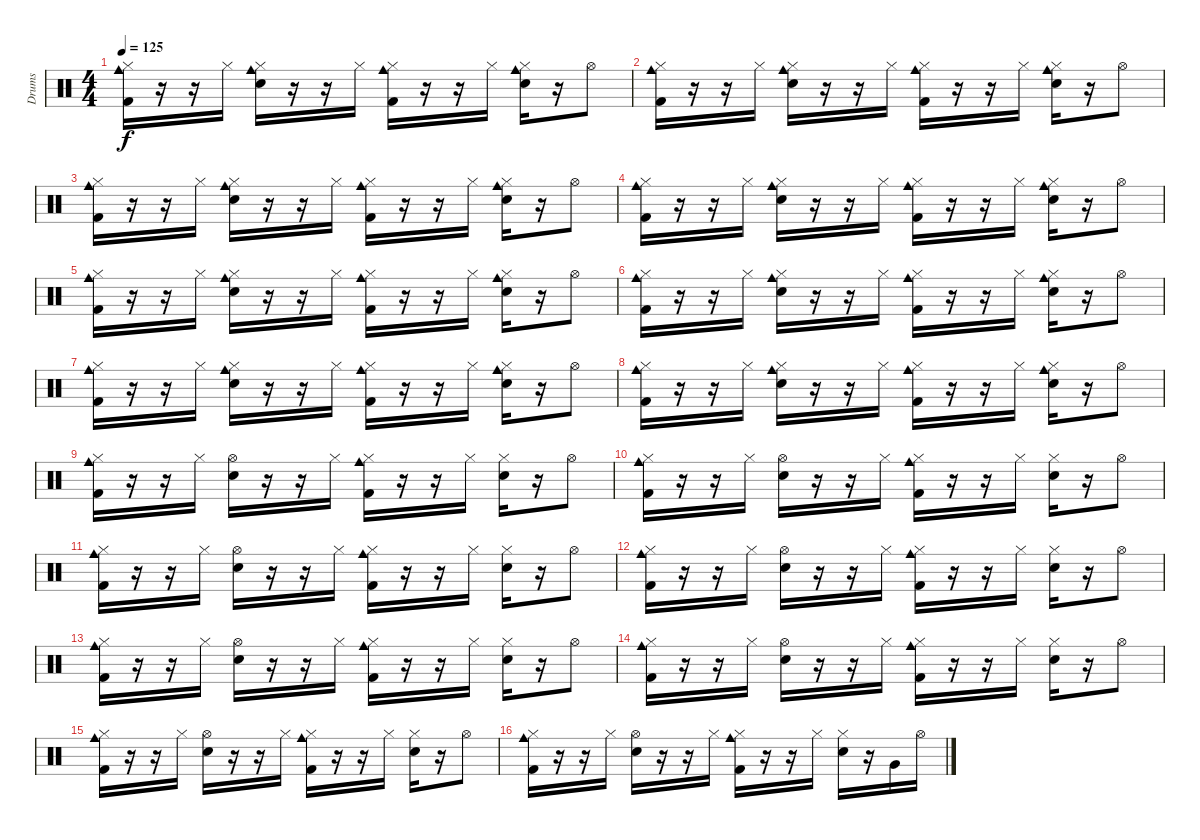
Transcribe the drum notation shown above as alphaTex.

\track ("Drums" "Drums") {instrument percussion}
\staff {score}
\articulation defaults
\ts (4 4)
\tempo 125
\clef neutral
\ks c
("Cowbell medium (hit)" "Hi-Hat (closed)" "Kick (hit) 2").16{dy f} r.16 r.16 "Hi-Hat (closed)".16 ("Cowbell medium (hit)" "Hi-Hat (closed)" "Electric Snare (hit)").16 r.16 r.16 "Hi-Hat (closed)".16 ("Cowbell medium (hit)" "Hi-Hat (closed)" "Kick (hit) 2").16 r.16 r.16 "Hi-Hat (closed)".16 ("Cowbell medium (hit)" "Hi-Hat (closed)" "Electric Snare (hit)").16 r.16 "Hi-Hat (open)".8 |
("Cowbell medium (hit)" "Hi-Hat (closed)" "Kick (hit) 2").16 r.16 r.16 "Hi-Hat (closed)".16 ("Cowbell medium (hit)" "Hi-Hat (closed)" "Electric Snare (hit)").16 r.16 r.16 "Hi-Hat (closed)".16 ("Cowbell medium (hit)" "Hi-Hat (closed)" "Kick (hit) 2").16 r.16 r.16 "Hi-Hat (closed)".16 ("Cowbell medium (hit)" "Hi-Hat (closed)" "Electric Snare (hit)").16 r.16 "Hi-Hat (open)".8 |
("Cowbell medium (hit)" "Hi-Hat (closed)" "Kick (hit) 2").16 r.16 r.16 "Hi-Hat (closed)".16 ("Cowbell medium (hit)" "Hi-Hat (closed)" "Electric Snare (hit)").16 r.16 r.16 "Hi-Hat (closed)".16 ("Cowbell medium (hit)" "Hi-Hat (closed)" "Kick (hit) 2").16 r.16 r.16 "Hi-Hat (closed)".16 ("Cowbell medium (hit)" "Hi-Hat (closed)" "Electric Snare (hit)").16 r.16 "Hi-Hat (open)".8 |
("Cowbell medium (hit)" "Hi-Hat (closed)" "Kick (hit) 2").16 r.16 r.16 "Hi-Hat (closed)".16 ("Cowbell medium (hit)" "Hi-Hat (closed)" "Electric Snare (hit)").16 r.16 r.16 "Hi-Hat (closed)".16 ("Cowbell medium (hit)" "Hi-Hat (closed)" "Kick (hit) 2").16 r.16 r.16 "Hi-Hat (closed)".16 ("Cowbell medium (hit)" "Hi-Hat (closed)" "Electric Snare (hit)").16 r.16 "Hi-Hat (open)".8 |
("Cowbell medium (hit)" "Hi-Hat (closed)" "Kick (hit) 2").16 r.16 r.16 "Hi-Hat (closed)".16 ("Cowbell medium (hit)" "Hi-Hat (closed)" "Electric Snare (hit)").16 r.16 r.16 "Hi-Hat (closed)".16 ("Cowbell medium (hit)" "Hi-Hat (closed)" "Kick (hit) 2").16 r.16 r.16 "Hi-Hat (closed)".16 ("Cowbell medium (hit)" "Hi-Hat (closed)" "Electric Snare (hit)").16 r.16 "Hi-Hat (open)".8 |
("Cowbell medium (hit)" "Hi-Hat (closed)" "Kick (hit) 2").16 r.16 r.16 "Hi-Hat (closed)".16 ("Cowbell medium (hit)" "Hi-Hat (closed)" "Electric Snare (hit)").16 r.16 r.16 "Hi-Hat (closed)".16 ("Cowbell medium (hit)" "Hi-Hat (closed)" "Kick (hit) 2").16 r.16 r.16 "Hi-Hat (closed)".16 ("Cowbell medium (hit)" "Hi-Hat (closed)" "Electric Snare (hit)").16 r.16 "Hi-Hat (open)".8 |
("Cowbell medium (hit)" "Hi-Hat (closed)" "Kick (hit) 2").16 r.16 r.16 "Hi-Hat (closed)".16 ("Cowbell medium (hit)" "Hi-Hat (closed)" "Electric Snare (hit)").16 r.16 r.16 "Hi-Hat (closed)".16 ("Cowbell medium (hit)" "Hi-Hat (closed)" "Kick (hit) 2").16 r.16 r.16 "Hi-Hat (closed)".16 ("Cowbell medium (hit)" "Hi-Hat (closed)" "Electric Snare (hit)").16 r.16 "Hi-Hat (open)".8 |
("Cowbell medium (hit)" "Hi-Hat (closed)" "Kick (hit) 2").16 r.16 r.16 "Hi-Hat (closed)".16 ("Cowbell medium (hit)" "Hi-Hat (closed)" "Electric Snare (hit)").16 r.16 r.16 "Hi-Hat (closed)".16 ("Cowbell medium (hit)" "Hi-Hat (closed)" "Kick (hit) 2").16 r.16 r.16 "Hi-Hat (closed)".16 ("Cowbell medium (hit)" "Hi-Hat (closed)" "Electric Snare (hit)").16 r.16 "Hi-Hat (open)".8 |
("Cowbell medium (hit)" "Hi-Hat (closed)" "Kick (hit) 2").16 r.16 r.16 "Hi-Hat (closed)".16 ("Hi-Hat (open)" "Electric Snare (hit)").16 r.16 r.16 "Hi-Hat (closed)".16 ("Cowbell medium (hit)" "Hi-Hat (closed)" "Kick (hit) 2").16 r.16 r.16 "Hi-Hat (closed)".16 ("Hi-Hat (closed)" "Electric Snare (hit)").16 r.16 "Hi-Hat (open)".8 |
("Cowbell medium (hit)" "Hi-Hat (closed)" "Kick (hit) 2").16 r.16 r.16 "Hi-Hat (closed)".16 ("Hi-Hat (open)" "Electric Snare (hit)").16 r.16 r.16 "Hi-Hat (closed)".16 ("Cowbell medium (hit)" "Hi-Hat (closed)" "Kick (hit) 2").16 r.16 r.16 "Hi-Hat (closed)".16 ("Hi-Hat (closed)" "Electric Snare (hit)").16 r.16 "Hi-Hat (open)".8 |
("Cowbell medium (hit)" "Hi-Hat (closed)" "Kick (hit) 2").16 r.16 r.16 "Hi-Hat (closed)".16 ("Hi-Hat (open)" "Electric Snare (hit)").16 r.16 r.16 "Hi-Hat (closed)".16 ("Cowbell medium (hit)" "Hi-Hat (closed)" "Kick (hit) 2").16 r.16 r.16 "Hi-Hat (closed)".16 ("Hi-Hat (closed)" "Electric Snare (hit)").16 r.16 "Hi-Hat (open)".8 |
("Cowbell medium (hit)" "Hi-Hat (closed)" "Kick (hit) 2").16 r.16 r.16 "Hi-Hat (closed)".16 ("Hi-Hat (open)" "Electric Snare (hit)").16 r.16 r.16 "Hi-Hat (closed)".16 ("Cowbell medium (hit)" "Hi-Hat (closed)" "Kick (hit) 2").16 r.16 r.16 "Hi-Hat (closed)".16 ("Hi-Hat (closed)" "Electric Snare (hit)").16 r.16 "Hi-Hat (open)".8 |
("Cowbell medium (hit)" "Hi-Hat (closed)" "Kick (hit) 2").16 r.16 r.16 "Hi-Hat (closed)".16 ("Hi-Hat (open)" "Electric Snare (hit)").16 r.16 r.16 "Hi-Hat (closed)".16 ("Cowbell medium (hit)" "Hi-Hat (closed)" "Kick (hit) 2").16 r.16 r.16 "Hi-Hat (closed)".16 ("Hi-Hat (closed)" "Electric Snare (hit)").16 r.16 "Hi-Hat (open)".8 |
("Cowbell medium (hit)" "Hi-Hat (closed)" "Kick (hit) 2").16 r.16 r.16 "Hi-Hat (closed)".16 ("Hi-Hat (open)" "Electric Snare (hit)").16 r.16 r.16 "Hi-Hat (closed)".16 ("Cowbell medium (hit)" "Hi-Hat (closed)" "Kick (hit) 2").16 r.16 r.16 "Hi-Hat (closed)".16 ("Hi-Hat (closed)" "Electric Snare (hit)").16 r.16 "Hi-Hat (open)".8 |
("Cowbell medium (hit)" "Hi-Hat (closed)" "Kick (hit) 2").16 r.16 r.16 "Hi-Hat (closed)".16 ("Hi-Hat (open)" "Electric Snare (hit)").16 r.16 r.16 "Hi-Hat (closed)".16 ("Cowbell medium (hit)" "Hi-Hat (closed)" "Kick (hit) 2").16 r.16 r.16 "Hi-Hat (closed)".16 ("Hi-Hat (closed)" "Electric Snare (hit)").16 r.16 "Hi-Hat (open)".8 |
("Cowbell medium (hit)" "Hi-Hat (closed)" "Kick (hit) 2").16 r.16 r.16 "Hi-Hat (closed)".16 ("Hi-Hat (open)" "Electric Snare (hit)").16 r.16 r.16 "Hi-Hat (closed)".16 ("Cowbell medium (hit)" "Hi-Hat (closed)" "Kick (hit) 2").16 r.16 r.16 "Hi-Hat (closed)".16 ("Hi-Hat (closed)" "Electric Snare (hit)").16 r.16 "Very Low Tom (hit)".16 "Hi-Hat (open)".16
